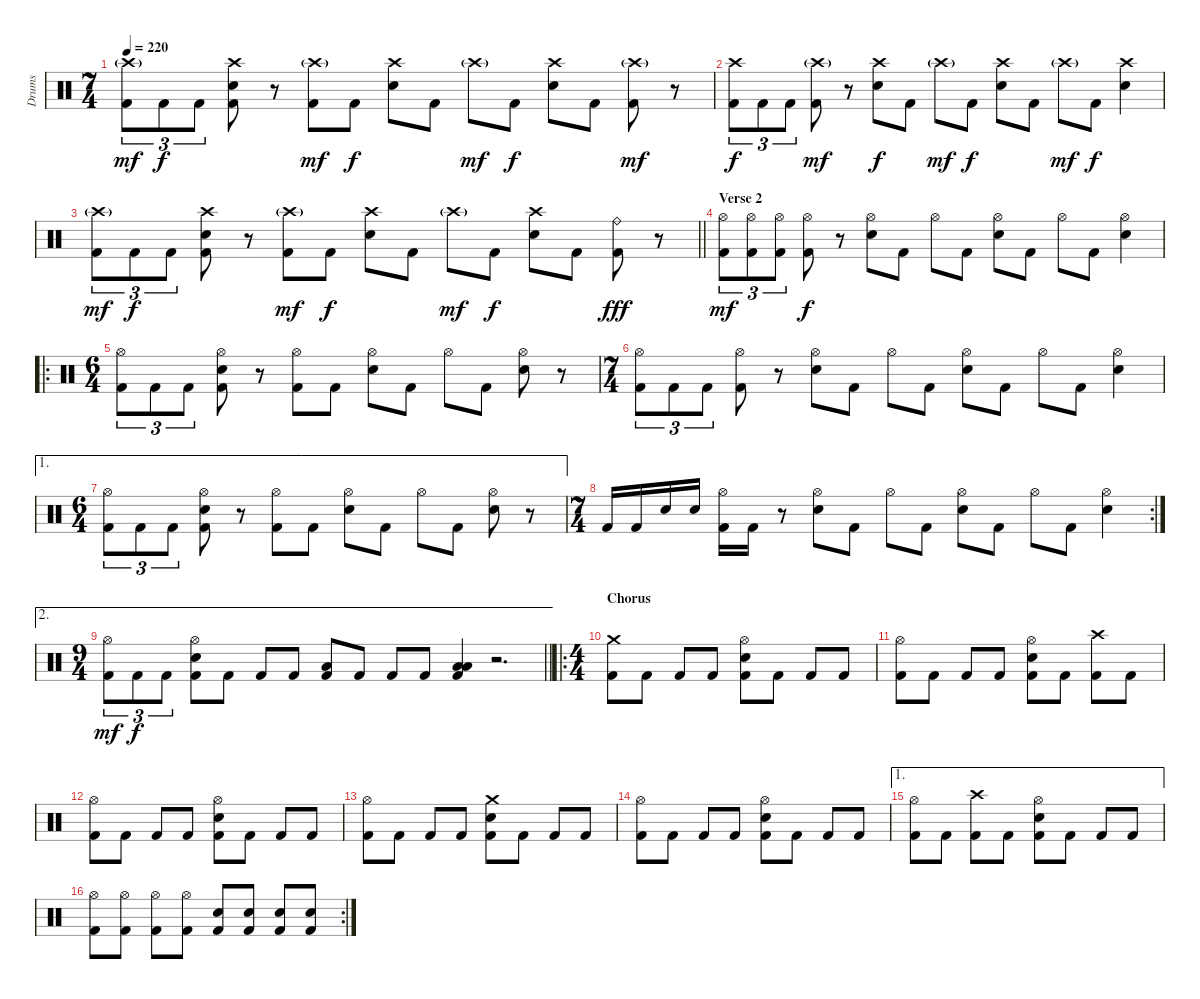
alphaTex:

\track ("Drums" "Drums") {instrument percussion}
\staff {score}
\articulation defaults
\ts (7 4)
\tempo 220
\clef neutral
\ks c
("Crash high (hit)"{g} "Kick (hit) 2").8{tu (3 2) dy mf} "Kick (hit) 2".8{tu (3 2) dy f} "Kick (hit) 2".8{tu (3 2)} ("Crash high (hit)" "Electric Snare (hit)" "Kick (hit) 2").8 r.8 ("Crash high (hit)"{g} "Kick (hit) 2").8{dy mf} "Kick (hit) 2".8{dy f} ("Crash high (hit)" "Electric Snare (hit)").8 "Kick (hit) 2".8 "Crash high (hit)"{g}.8{dy mf} "Kick (hit) 2".8{dy f} ("Crash high (hit)" "Electric Snare (hit)").8 "Kick (hit) 2".8 ("Crash high (hit)"{g} "Kick (hit) 2").8{dy mf} r.8 |
("Crash high (hit)" "Kick (hit) 2").8{tu (3 2) dy f} "Kick (hit) 2".8{tu (3 2)} "Kick (hit) 2".8{tu (3 2)} ("Crash high (hit)"{g} "Kick (hit) 2").8{dy mf} r.8 ("Crash high (hit)" "Electric Snare (hit)").8{dy f} "Kick (hit) 2".8 "Crash high (hit)"{g}.8{dy mf} "Kick (hit) 2".8{dy f} ("Crash high (hit)" "Electric Snare (hit)").8 "Kick (hit) 2".8 "Crash high (hit)"{g}.8{dy mf} "Kick (hit) 2".8{dy f} ("Crash high (hit)" "Electric Snare (hit)").4 |
\barLineRight lightlight
("Crash high (hit)"{g} "Kick (hit) 2").8{tu (3 2) dy mf} "Kick (hit) 2".8{tu (3 2) dy f} "Kick (hit) 2".8{tu (3 2)} ("Crash high (hit)" "Electric Snare (hit)" "Kick (hit) 2").8 r.8 ("Crash high (hit)"{g} "Kick (hit) 2").8{dy mf} "Kick (hit) 2".8{dy f} ("Crash high (hit)" "Electric Snare (hit)").8 "Kick (hit) 2".8 "Crash high (hit)"{g}.8{dy mf} "Kick (hit) 2".8{dy f} ("Crash high (hit)" "Electric Snare (hit)").8 "Kick (hit) 2".8 ("Ride (bell)" "Kick (hit) 2").8{dy fff} r.8 |
\section ("" "Verse 2")
("Hi-Hat (open)" "Kick (hit) 2").8{tu (3 2) dy mf} ("Hi-Hat (open)" "Kick (hit) 2").8{tu (3 2)} ("Hi-Hat (open)" "Kick (hit) 2").8{tu (3 2)} ("Hi-Hat (open)" "Kick (hit) 2").8{dy f} r.8 ("Hi-Hat (open)" "Electric Snare (hit)").8 "Kick (hit) 2".8 "Hi-Hat (open)".8 "Kick (hit) 2".8 ("Hi-Hat (open)" "Electric Snare (hit)").8 "Kick (hit) 2".8 "Hi-Hat (open)".8 "Kick (hit) 2".8 ("Hi-Hat (open)" "Electric Snare (hit)").4 |
\ro
\ts (6 4)
("Hi-Hat (open)" "Kick (hit) 2").8{tu (3 2)} "Kick (hit) 2".8{tu (3 2)} "Kick (hit) 2".8{tu (3 2)} ("Hi-Hat (open)" "Electric Snare (hit)" "Kick (hit) 2").8 r.8 ("Hi-Hat (open)" "Kick (hit) 2").8 "Kick (hit) 2".8 ("Hi-Hat (open)" "Electric Snare (hit)").8 "Kick (hit) 2".8 "Hi-Hat (open)".8 "Kick (hit) 2".8 ("Hi-Hat (open)" "Electric Snare (hit)").8 r.8 |
\ts (7 4)
("Hi-Hat (open)" "Kick (hit) 2").8{tu (3 2)} "Kick (hit) 2".8{tu (3 2)} "Kick (hit) 2".8{tu (3 2)} ("Hi-Hat (open)" "Kick (hit) 2").8 r.8 ("Hi-Hat (open)" "Electric Snare (hit)").8 "Kick (hit) 2".8 "Hi-Hat (open)".8 "Kick (hit) 2".8 ("Hi-Hat (open)" "Electric Snare (hit)").8 "Kick (hit) 2".8 "Hi-Hat (open)".8 "Kick (hit) 2".8 ("Hi-Hat (open)" "Electric Snare (hit)").4 |
\ae 1
\ts (6 4)
("Hi-Hat (open)" "Kick (hit) 2").8{tu (3 2)} "Kick (hit) 2".8{tu (3 2)} "Kick (hit) 2".8{tu (3 2)} ("Hi-Hat (open)" "Electric Snare (hit)" "Kick (hit) 2").8 r.8 ("Hi-Hat (open)" "Kick (hit) 2").8 "Kick (hit) 2".8 ("Hi-Hat (open)" "Electric Snare (hit)").8 "Kick (hit) 2".8 "Hi-Hat (open)".8 "Kick (hit) 2".8 ("Hi-Hat (open)" "Electric Snare (hit)").8 r.8 |
\rc 2
\ts (7 4)
"Kick (hit) 2".16 "Kick (hit) 2".16 "Electric Snare (hit)".16 "Electric Snare (hit)".16 ("Hi-Hat (open)" "Kick (hit) 2").16 "Kick (hit) 2".16 r.8 ("Hi-Hat (open)" "Electric Snare (hit)").8 "Kick (hit) 2".8 "Hi-Hat (open)".8 "Kick (hit) 2".8 ("Hi-Hat (open)" "Electric Snare (hit)").8 "Kick (hit) 2".8 "Hi-Hat (open)".8 "Kick (hit) 2".8 ("Hi-Hat (open)" "Electric Snare (hit)").4 |
\ae 2
\ts (9 4)
\barLineRight lightlight
("Hi-Hat (open)" "Kick (hit) 2").8{tu (3 2) dy mf} "Kick (hit) 2".8{tu (3 2) dy f} "Kick (hit) 2".8{tu (3 2)} ("Hi-Hat (open)" "Electric Snare (hit)" "Kick (hit) 2").8 "Kick (hit) 2".8 "Kick (hit) 2".8 "Kick (hit) 2".8 ("Low Tom (hit)" "Kick (hit) 2").8 "Kick (hit) 2".8 "Kick (hit) 2".8 "Kick (hit) 2".8 ("Low Tom (hit)" "Low Floor Tom (hit)" "Kick (hit) 2").4 r.2{d} |
\ro
\ts (4 4)
\section ("" "Chorus")
("Crash medium (hit)" "Kick (hit) 2").8 "Kick (hit) 2".8 "Kick (hit) 2".8 "Kick (hit) 2".8 ("Hi-Hat (open)" "Electric Snare (hit)" "Kick (hit) 2").8 "Kick (hit) 2".8 "Kick (hit) 2".8 "Kick (hit) 2".8 |
("Hi-Hat (open)" "Kick (hit) 2").8 "Kick (hit) 2".8 "Kick (hit) 2".8 "Kick (hit) 2".8 ("Hi-Hat (open)" "Electric Snare (hit)" "Kick (hit) 2").8 "Kick (hit) 2".8 ("Crash high (hit)" "Kick (hit) 2").8 "Kick (hit) 2".8 |
("Hi-Hat (open)" "Kick (hit) 2").8 "Kick (hit) 2".8 "Kick (hit) 2".8 "Kick (hit) 2".8 ("Hi-Hat (open)" "Electric Snare (hit)" "Kick (hit) 2").8 "Kick (hit) 2".8 "Kick (hit) 2".8 "Kick (hit) 2".8 |
("Hi-Hat (open)" "Kick (hit) 2").8 "Kick (hit) 2".8 "Kick (hit) 2".8 "Kick (hit) 2".8 ("Crash medium (hit)" "Electric Snare (hit)" "Kick (hit) 2").8 "Kick (hit) 2".8 "Kick (hit) 2".8 "Kick (hit) 2".8 |
("Hi-Hat (open)" "Kick (hit) 2").8 "Kick (hit) 2".8 "Kick (hit) 2".8 "Kick (hit) 2".8 ("Hi-Hat (open)" "Electric Snare (hit)" "Kick (hit) 2").8 "Kick (hit) 2".8 "Kick (hit) 2".8 "Kick (hit) 2".8 |
\ae 1
("Hi-Hat (open)" "Kick (hit) 2").8 "Kick (hit) 2".8 ("Crash high (hit)" "Kick (hit) 2").8 "Kick (hit) 2".8 ("Hi-Hat (open)" "Electric Snare (hit)" "Kick (hit) 2").8 "Kick (hit) 2".8 "Kick (hit) 2".8 "Kick (hit) 2".8 |
\rc 2
("Hi-Hat (open)" "Kick (hit) 2").8 ("Hi-Hat (open)" "Kick (hit) 2").8 ("Hi-Hat (open)" "Kick (hit) 2").8 ("Hi-Hat (open)" "Kick (hit) 2").8 ("Electric Snare (hit)" "Kick (hit) 2").8 ("Electric Snare (hit)" "Kick (hit) 2").8 ("Electric Snare (hit)" "Kick (hit) 2").8 ("Electric Snare (hit)" "Kick (hit) 2").8
